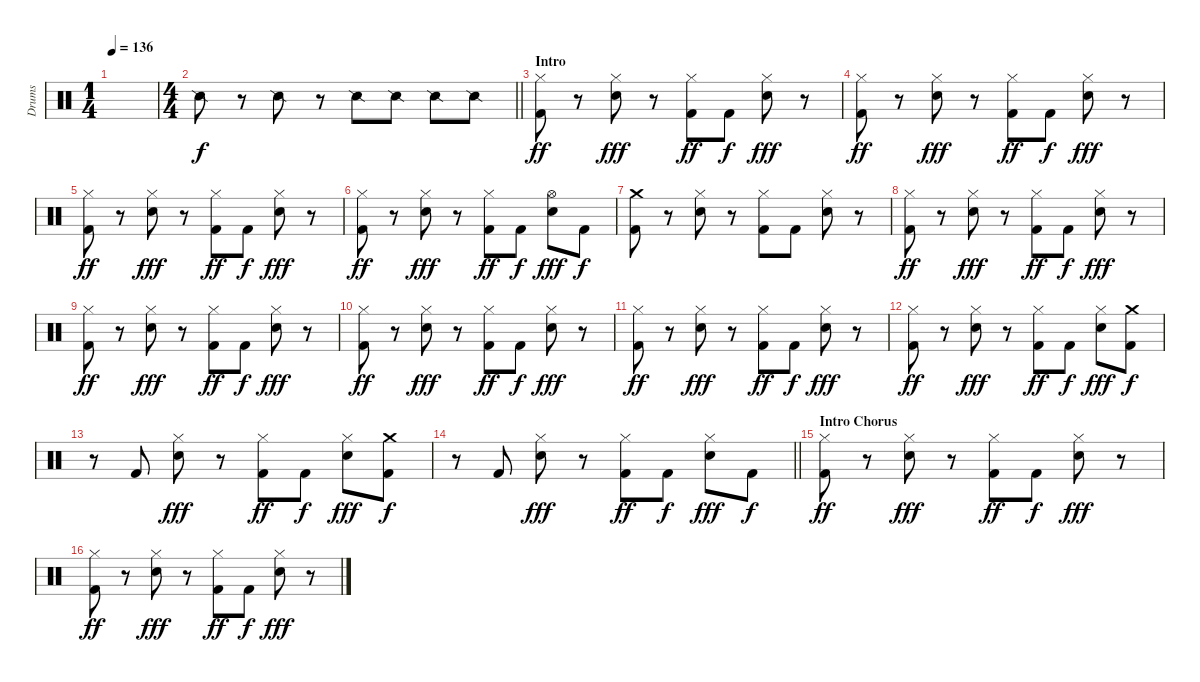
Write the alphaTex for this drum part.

\track ("Drums" "Drums") {instrument percussion}
\staff {score}
\articulation defaults
\ts (1 4)
\tempo 136
\clef neutral
\ks c
|
\ts (4 4)
\barLineRight lightlight "Snare (side stick) 2".8
r.8 "Snare (side stick) 2".8 r.8 "Snare (side stick) 2".8 "Snare (side stick) 2".8 "Snare (side stick) 2".8 "Snare (side stick) 2".8 |
\section ("" "Intro")
("Hi-Hat (closed)" "Kick (hit) 2").8{dy ff} r.8 ("Hi-Hat (closed)" "Snare (hit) 2").8{dy fff} r.8 ("Hi-Hat (closed)" "Kick (hit) 2").8{dy ff} "Kick (hit) 2".8{dy f} ("Hi-Hat (closed)" "Snare (hit) 2").8{dy fff} r.8 |
("Hi-Hat (closed)" "Kick (hit) 2").8{dy ff} r.8 ("Hi-Hat (closed)" "Snare (hit) 2").8{dy fff} r.8 ("Hi-Hat (closed)" "Kick (hit) 2").8{dy ff} "Kick (hit) 2".8{dy f} ("Hi-Hat (closed)" "Snare (hit) 2").8{dy fff} r.8 |
("Hi-Hat (closed)" "Kick (hit) 2").8{dy ff} r.8 ("Hi-Hat (closed)" "Snare (hit) 2").8{dy fff} r.8 ("Hi-Hat (closed)" "Kick (hit) 2").8{dy ff} "Kick (hit) 2".8{dy f} ("Hi-Hat (closed)" "Snare (hit) 2").8{dy fff} r.8 |
("Hi-Hat (closed)" "Kick (hit) 2").8{dy ff} r.8 ("Hi-Hat (closed)" "Snare (hit) 2").8{dy fff} r.8 ("Hi-Hat (closed)" "Kick (hit) 2").8{dy ff} "Kick (hit) 2".8{dy f} ("Hi-Hat (open)" "Snare (hit) 2").8{dy fff} "Kick (hit) 2".8{dy f} |
("Crash medium (hit)" "Kick (hit) 2").8 r.8 ("Hi-Hat (closed)" "Snare (hit) 2").8 r.8 ("Hi-Hat (closed)" "Kick (hit) 2").8 "Kick (hit) 2".8 ("Hi-Hat (closed)" "Snare (hit) 2").8 r.8 |
("Hi-Hat (closed)" "Kick (hit) 2").8{dy ff} r.8 ("Hi-Hat (closed)" "Snare (hit) 2").8{dy fff} r.8 ("Hi-Hat (closed)" "Kick (hit) 2").8{dy ff} "Kick (hit) 2".8{dy f} ("Hi-Hat (closed)" "Snare (hit) 2").8{dy fff} r.8 |
("Hi-Hat (closed)" "Kick (hit) 2").8{dy ff} r.8 ("Hi-Hat (closed)" "Snare (hit) 2").8{dy fff} r.8 ("Hi-Hat (closed)" "Kick (hit) 2").8{dy ff} "Kick (hit) 2".8{dy f} ("Hi-Hat (closed)" "Snare (hit) 2").8{dy fff} r.8 |
("Hi-Hat (closed)" "Kick (hit) 2").8{dy ff} r.8 ("Hi-Hat (closed)" "Snare (hit) 2").8{dy fff} r.8 ("Hi-Hat (closed)" "Kick (hit) 2").8{dy ff} "Kick (hit) 2".8{dy f} ("Hi-Hat (closed)" "Snare (hit) 2").8{dy fff} r.8 |
("Hi-Hat (closed)" "Kick (hit) 2").8{dy ff} r.8 ("Hi-Hat (closed)" "Snare (hit) 2").8{dy fff} r.8 ("Hi-Hat (closed)" "Kick (hit) 2").8{dy ff} "Kick (hit) 2".8{dy f} ("Hi-Hat (closed)" "Snare (hit) 2").8{dy fff} r.8 |
("Hi-Hat (closed)" "Kick (hit) 2").8{dy ff} r.8 ("Hi-Hat (closed)" "Snare (hit) 2").8{dy fff} r.8 ("Hi-Hat (closed)" "Kick (hit) 2").8{dy ff} "Kick (hit) 2".8{dy f} ("Hi-Hat (closed)" "Snare (hit) 2").8{dy fff} ("Crash medium (hit)" "Kick (hit) 2").8{dy f} |
r.8 "Kick (hit) 2".8 ("Hi-Hat (closed)" "Snare (hit) 2").8{dy fff} r.8 ("Hi-Hat (closed)" "Kick (hit) 2").8{dy ff} "Kick (hit) 2".8{dy f} ("Hi-Hat (closed)" "Snare (hit) 2").8{dy fff} ("Crash medium (hit)" "Kick (hit) 2").8{dy f} |
\barLineRight lightlight
r.8 "Kick (hit) 2".8 ("Hi-Hat (closed)" "Snare (hit) 2").8{dy fff} r.8 ("Hi-Hat (closed)" "Kick (hit) 2").8{dy ff} "Kick (hit) 2".8{dy f} ("Hi-Hat (closed)" "Snare (hit) 2").8{dy fff} "Kick (hit) 2".8{dy f} |
\section ("" "Intro Chorus")
("Hi-Hat (closed)" "Kick (hit) 2").8{dy ff} r.8 ("Hi-Hat (closed)" "Snare (hit) 2").8{dy fff} r.8 ("Hi-Hat (closed)" "Kick (hit) 2").8{dy ff} "Kick (hit) 2".8{dy f} ("Hi-Hat (closed)" "Snare (hit) 2").8{dy fff} r.8 |
("Hi-Hat (closed)" "Kick (hit) 2").8{dy ff} r.8 ("Hi-Hat (closed)" "Snare (hit) 2").8{dy fff} r.8 ("Hi-Hat (closed)" "Kick (hit) 2").8{dy ff} "Kick (hit) 2".8{dy f} ("Hi-Hat (closed)" "Snare (hit) 2").8{dy fff} r.8
